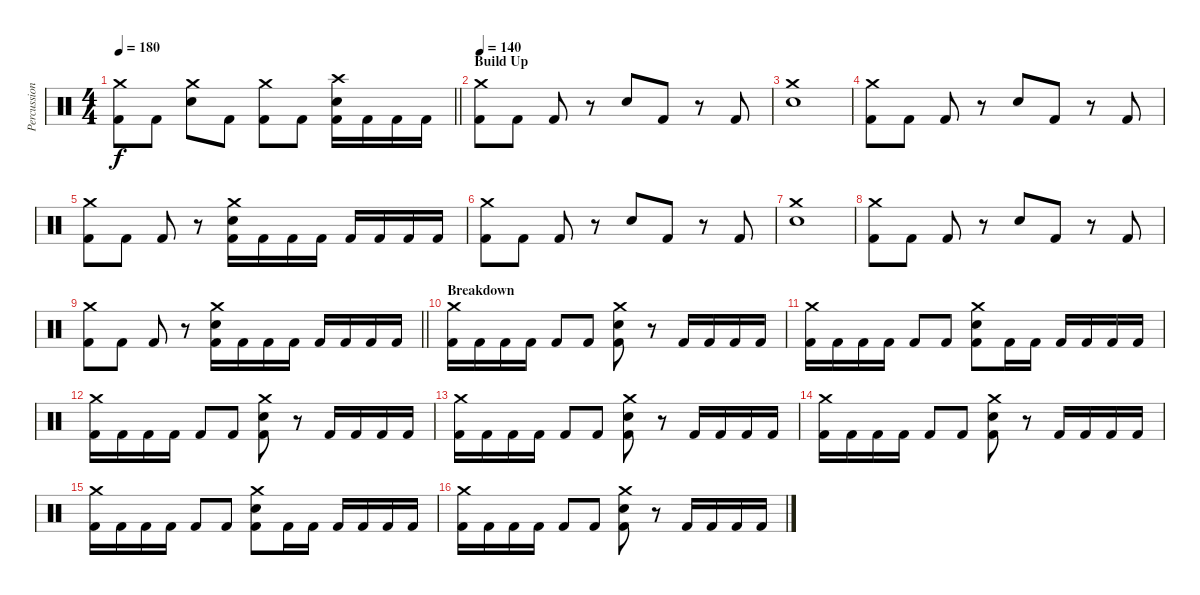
\track ("Percussion" "Percussion") {instrument percussion}
\staff {score}
\articulation defaults
\ts (4 4)
\tempo 180
\clef neutral
\barLineRight lightlight
\ks c
("Crash medium (hit)" "Kick (hit) 2").8{dy f} "Kick (hit) 2".8 ("Crash medium (hit)" "Electric Snare (hit)").8 "Kick (hit) 2".8 ("Crash medium (hit)" "Kick (hit) 2").8 "Kick (hit) 2".8 ("Crash high (hit)" "Electric Snare (hit)" "Kick (hit) 2").16 "Kick (hit) 2".16 "Kick (hit) 2".16 "Kick (hit) 2".16 |
\section ("" "Build Up")
\tempo 140
("Crash medium (hit)" "Kick (hit) 2").8 "Kick (hit) 2".8 "Kick (hit) 2".8 r.8 "Electric Snare (hit)".8 "Kick (hit) 2".8 r.8 "Kick (hit) 2".8 |
("Crash medium (hit)" "Electric Snare (hit)").1 |
("Crash medium (hit)" "Kick (hit) 2").8 "Kick (hit) 2".8 "Kick (hit) 2".8 r.8 "Electric Snare (hit)".8 "Kick (hit) 2".8 r.8 "Kick (hit) 2".8 |
("Crash medium (hit)" "Kick (hit) 2").8 "Kick (hit) 2".8 "Kick (hit) 2".8 r.8 ("Crash medium (hit)" "Electric Snare (hit)" "Kick (hit) 2").16 "Kick (hit) 2".16 "Kick (hit) 2".16 "Kick (hit) 2".16 "Kick (hit) 2".16 "Kick (hit) 2".16 "Kick (hit) 2".16 "Kick (hit) 2".16 |
("Crash medium (hit)" "Kick (hit) 2").8 "Kick (hit) 2".8 "Kick (hit) 2".8 r.8 "Electric Snare (hit)".8 "Kick (hit) 2".8 r.8 "Kick (hit) 2".8 |
("Crash medium (hit)" "Electric Snare (hit)").1 |
("Crash medium (hit)" "Kick (hit) 2").8 "Kick (hit) 2".8 "Kick (hit) 2".8 r.8 "Electric Snare (hit)".8 "Kick (hit) 2".8 r.8 "Kick (hit) 2".8 |
\barLineRight lightlight
("Crash medium (hit)" "Kick (hit) 2").8 "Kick (hit) 2".8 "Kick (hit) 2".8 r.8 ("Crash medium (hit)" "Electric Snare (hit)" "Kick (hit) 2").16 "Kick (hit) 2".16 "Kick (hit) 2".16 "Kick (hit) 2".16 "Kick (hit) 2".16 "Kick (hit) 2".16 "Kick (hit) 2".16 "Kick (hit) 2".16 |
\section ("" "Breakdown")
("Crash medium (hit)" "Kick (hit) 2").16 "Kick (hit) 2".16 "Kick (hit) 2".16 "Kick (hit) 2".16 "Kick (hit) 2".8 "Kick (hit) 2".8 ("Crash medium (hit)" "Electric Snare (hit)" "Kick (hit) 2").8 r.8 "Kick (hit) 2".16 "Kick (hit) 2".16 "Kick (hit) 2".16 "Kick (hit) 2".16 |
("Crash medium (hit)" "Kick (hit) 2").16 "Kick (hit) 2".16 "Kick (hit) 2".16 "Kick (hit) 2".16 "Kick (hit) 2".8 "Kick (hit) 2".8 ("Crash medium (hit)" "Electric Snare (hit)" "Kick (hit) 2").8 "Kick (hit) 2".16 "Kick (hit) 2".16 "Kick (hit) 2".16 "Kick (hit) 2".16 "Kick (hit) 2".16 "Kick (hit) 2".16 |
("Crash medium (hit)" "Kick (hit) 2").16 "Kick (hit) 2".16 "Kick (hit) 2".16 "Kick (hit) 2".16 "Kick (hit) 2".8 "Kick (hit) 2".8 ("Crash medium (hit)" "Electric Snare (hit)" "Kick (hit) 2").8 r.8 "Kick (hit) 2".16 "Kick (hit) 2".16 "Kick (hit) 2".16 "Kick (hit) 2".16 |
("Crash medium (hit)" "Kick (hit) 2").16 "Kick (hit) 2".16 "Kick (hit) 2".16 "Kick (hit) 2".16 "Kick (hit) 2".8 "Kick (hit) 2".8 ("Crash medium (hit)" "Electric Snare (hit)" "Kick (hit) 2").8 r.8 "Kick (hit) 2".16 "Kick (hit) 2".16 "Kick (hit) 2".16 "Kick (hit) 2".16 |
("Crash medium (hit)" "Kick (hit) 2").16 "Kick (hit) 2".16 "Kick (hit) 2".16 "Kick (hit) 2".16 "Kick (hit) 2".8 "Kick (hit) 2".8 ("Crash medium (hit)" "Electric Snare (hit)" "Kick (hit) 2").8 r.8 "Kick (hit) 2".16 "Kick (hit) 2".16 "Kick (hit) 2".16 "Kick (hit) 2".16 |
("Crash medium (hit)" "Kick (hit) 2").16 "Kick (hit) 2".16 "Kick (hit) 2".16 "Kick (hit) 2".16 "Kick (hit) 2".8 "Kick (hit) 2".8 ("Crash medium (hit)" "Electric Snare (hit)" "Kick (hit) 2").8 "Kick (hit) 2".16 "Kick (hit) 2".16 "Kick (hit) 2".16 "Kick (hit) 2".16 "Kick (hit) 2".16 "Kick (hit) 2".16 |
("Crash medium (hit)" "Kick (hit) 2").16 "Kick (hit) 2".16 "Kick (hit) 2".16 "Kick (hit) 2".16 "Kick (hit) 2".8 "Kick (hit) 2".8 ("Crash medium (hit)" "Electric Snare (hit)" "Kick (hit) 2").8 r.8 "Kick (hit) 2".16 "Kick (hit) 2".16 "Kick (hit) 2".16 "Kick (hit) 2".16
